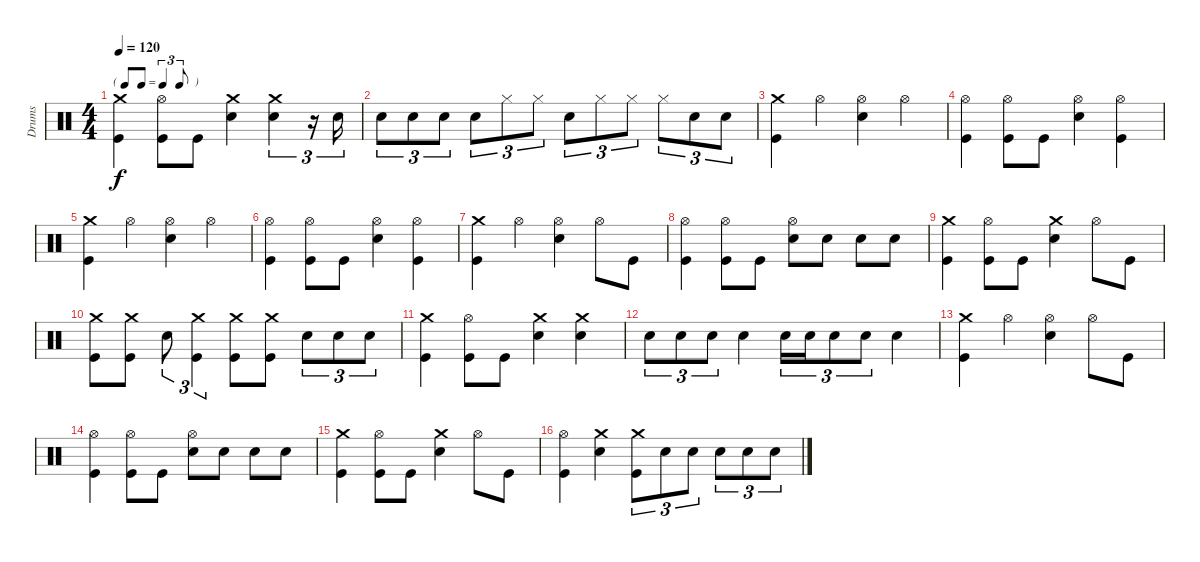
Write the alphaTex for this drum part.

\track ("Drums" "Drums") {instrument percussion}
\staff {score}
\articulation defaults
\ts (4 4)
\tf triplet8th
\tempo 120
\clef neutral
\ks c
("Kick (hit)" "Crash medium (hit)").4{dy f} ("Kick (hit)" "Hi-Hat (open)").8 "Kick (hit)".8 ("Electric Snare (hit)" "Crash medium (hit)").4 ("Electric Snare (hit)" "Crash medium (hit)").4{tu (3 2)} r.16{tu (3 2)} "Electric Snare (hit)".16{tu (3 2)} |
"Electric Snare (hit)".8{tu (3 2)} "Electric Snare (hit)".8{tu (3 2)} "Electric Snare (hit)".8{tu (3 2)} "Electric Snare (hit)".8{tu (3 2)} "Hi-Hat (closed)".8{tu (3 2)} "Hi-Hat (closed)".8{tu (3 2)} "Electric Snare (hit)".8{tu (3 2)} "Hi-Hat (closed)".8{tu (3 2)} "Hi-Hat (closed)".8{tu (3 2)} "Hi-Hat (closed)".8{tu (3 2)} "Electric Snare (hit)".8{tu (3 2)} "Electric Snare (hit)".8{tu (3 2)} |
("Kick (hit)" "Crash medium (hit)").4 "Hi-Hat (open)".4 ("Electric Snare (hit)" "Hi-Hat (open)").4 "Hi-Hat (open)".4 |
("Kick (hit)" "Hi-Hat (open)").4 ("Kick (hit)" "Hi-Hat (open)").8 "Kick (hit)".8 ("Electric Snare (hit)" "Hi-Hat (open)").4 ("Kick (hit)" "Hi-Hat (open)").4 |
("Kick (hit)" "Crash medium (hit)").4 "Hi-Hat (open)".4 ("Electric Snare (hit)" "Hi-Hat (open)").4 "Hi-Hat (open)".4 |
("Kick (hit)" "Hi-Hat (open)").4 ("Kick (hit)" "Hi-Hat (open)").8 "Kick (hit)".8 ("Electric Snare (hit)" "Hi-Hat (open)").4 ("Kick (hit)" "Hi-Hat (open)").4 |
("Kick (hit)" "Crash medium (hit)").4 "Hi-Hat (open)".4 ("Electric Snare (hit)" "Hi-Hat (open)").4 "Hi-Hat (open)".8 "Kick (hit)".8 |
("Kick (hit)" "Hi-Hat (open)").4 ("Kick (hit)" "Hi-Hat (open)").8 "Kick (hit)".8 ("Electric Snare (hit)" "Hi-Hat (open)").8 "Electric Snare (hit)".8 "Electric Snare (hit)".8 "Electric Snare (hit)".8 |
("Kick (hit)" "Crash medium (hit)").4 ("Kick (hit)" "Hi-Hat (open)").8 "Kick (hit)".8 ("Electric Snare (hit)" "Crash medium (hit)").4 "Hi-Hat (open)".8 "Kick (hit)".8 |
("Kick (hit)" "Crash medium (hit)").8 ("Kick (hit)" "Crash medium (hit)").8 "Electric Snare (hit)".8{tu (3 2)} ("Kick (hit)" "Crash medium (hit)").4{tu (3 2)} ("Kick (hit)" "Crash medium (hit)").8 ("Kick (hit)" "Crash medium (hit)").8 "Electric Snare (hit)".8{tu (3 2)} "Electric Snare (hit)".8{tu (3 2)} "Electric Snare (hit)".8{tu (3 2)} |
("Kick (hit)" "Crash medium (hit)").4 ("Kick (hit)" "Hi-Hat (open)").8 "Kick (hit)".8 ("Electric Snare (hit)" "Crash medium (hit)").4 ("Electric Snare (hit)" "Crash medium (hit)").4 |
"Electric Snare (hit)".8{tu (3 2)} "Electric Snare (hit)".8{tu (3 2)} "Electric Snare (hit)".8{tu (3 2)} "Electric Snare (hit)".4 "Electric Snare (hit)".16{tu (3 2)} "Electric Snare (hit)".16{tu (3 2)} "Electric Snare (hit)".8{tu (3 2)} "Electric Snare (hit)".8{tu (3 2)} "Electric Snare (hit)".4 |
("Kick (hit)" "Crash medium (hit)").4 "Hi-Hat (open)".4 ("Electric Snare (hit)" "Hi-Hat (open)").4 "Hi-Hat (open)".8 "Kick (hit)".8 |
("Kick (hit)" "Hi-Hat (open)").4 ("Kick (hit)" "Hi-Hat (open)").8 "Kick (hit)".8 ("Electric Snare (hit)" "Hi-Hat (open)").8 "Electric Snare (hit)".8 "Electric Snare (hit)".8 "Electric Snare (hit)".8 |
("Kick (hit)" "Crash medium (hit)").4 ("Kick (hit)" "Hi-Hat (open)").8 "Kick (hit)".8 ("Electric Snare (hit)" "Crash medium (hit)").4 "Hi-Hat (open)".8 "Kick (hit)".8 |
("Kick (hit)" "Hi-Hat (open)").4 ("Electric Snare (hit)" "Crash medium (hit)").4 ("Kick (hit)" "Crash medium (hit)").8{tu (3 2)} "Electric Snare (hit)".8{tu (3 2)} "Electric Snare (hit)".8{tu (3 2)} "Electric Snare (hit)".8{tu (3 2)} "Electric Snare (hit)".8{tu (3 2)} "Electric Snare (hit)".8{tu (3 2)}
